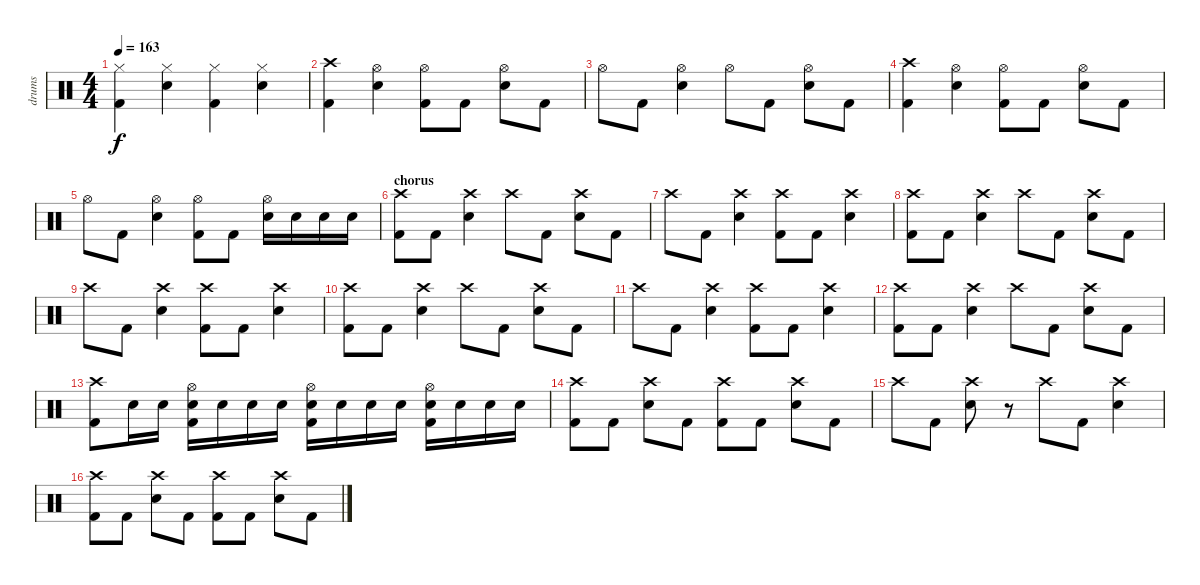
\track ("drums" "drums") {instrument percussion}
\staff {score}
\articulation defaults
\ts (4 4)
\tempo 163
\clef neutral
\ks c
("Hi-Hat (closed)" "Kick (hit) 2").4{dy f} ("Hi-Hat (closed)" "Electric Snare (hit)").4 ("Hi-Hat (closed)" "Kick (hit) 2").4 ("Hi-Hat (closed)" "Electric Snare (hit)").4 |
("Crash high (hit)" "Kick (hit) 2").4 ("Hi-Hat (open)" "Electric Snare (hit)").4 ("Hi-Hat (open)" "Kick (hit) 2").8 "Kick (hit) 2".8 ("Hi-Hat (open)" "Electric Snare (hit)").8 "Kick (hit) 2".8 |
"Hi-Hat (open)".8 "Kick (hit) 2".8 ("Hi-Hat (open)" "Electric Snare (hit)").4 "Hi-Hat (open)".8 "Kick (hit) 2".8 ("Hi-Hat (open)" "Electric Snare (hit)").8 "Kick (hit) 2".8 |
("Crash high (hit)" "Kick (hit) 2").4 ("Hi-Hat (open)" "Electric Snare (hit)").4 ("Hi-Hat (open)" "Kick (hit) 2").8 "Kick (hit) 2".8 ("Hi-Hat (open)" "Electric Snare (hit)").8 "Kick (hit) 2".8 |
"Hi-Hat (open)".8 "Kick (hit) 2".8 ("Hi-Hat (open)" "Electric Snare (hit)").4 ("Hi-Hat (open)" "Kick (hit) 2").8 "Kick (hit) 2".8 ("Hi-Hat (open)" "Electric Snare (hit)").16 "Electric Snare (hit)".16 "Electric Snare (hit)".16 "Electric Snare (hit)".16 |
\section ("" "chorus")
("Crash high (hit)" "Kick (hit) 2").8 "Kick (hit) 2".8 ("Crash high (hit)" "Electric Snare (hit)").4 "Crash high (hit)".8 "Kick (hit) 2".8 ("Crash high (hit)" "Electric Snare (hit)").8 "Kick (hit) 2".8 |
"Crash high (hit)".8 "Kick (hit) 2".8 ("Crash high (hit)" "Electric Snare (hit)").4 ("Crash high (hit)" "Kick (hit) 2").8 "Kick (hit) 2".8 ("Crash high (hit)" "Electric Snare (hit)").4 |
("Crash high (hit)" "Kick (hit) 2").8 "Kick (hit) 2".8 ("Crash high (hit)" "Electric Snare (hit)").4 "Crash high (hit)".8 "Kick (hit) 2".8 ("Crash high (hit)" "Electric Snare (hit)").8 "Kick (hit) 2".8 |
"Crash high (hit)".8 "Kick (hit) 2".8 ("Crash high (hit)" "Electric Snare (hit)").4 ("Crash high (hit)" "Kick (hit) 2").8 "Kick (hit) 2".8 ("Crash high (hit)" "Electric Snare (hit)").4 |
("Crash high (hit)" "Kick (hit) 2").8 "Kick (hit) 2".8 ("Crash high (hit)" "Electric Snare (hit)").4 "Crash high (hit)".8 "Kick (hit) 2".8 ("Crash high (hit)" "Electric Snare (hit)").8 "Kick (hit) 2".8 |
"Crash high (hit)".8 "Kick (hit) 2".8 ("Crash high (hit)" "Electric Snare (hit)").4 ("Crash high (hit)" "Kick (hit) 2").8 "Kick (hit) 2".8 ("Crash high (hit)" "Electric Snare (hit)").4 |
("Crash high (hit)" "Kick (hit) 2").8 "Kick (hit) 2".8 ("Crash high (hit)" "Electric Snare (hit)").4 "Crash high (hit)".8 "Kick (hit) 2".8 ("Crash high (hit)" "Electric Snare (hit)").8 "Kick (hit) 2".8 |
("Crash high (hit)" "Kick (hit) 2").8 "Electric Snare (hit)".16 "Electric Snare (hit)".16 ("Hi-Hat (open)" "Electric Snare (hit)" "Kick (hit) 2").16 "Electric Snare (hit)".16 "Electric Snare (hit)".16 "Electric Snare (hit)".16 ("Hi-Hat (open)" "Electric Snare (hit)" "Kick (hit) 2").16 "Electric Snare (hit)".16 "Electric Snare (hit)".16 "Electric Snare (hit)".16 ("Hi-Hat (open)" "Electric Snare (hit)" "Kick (hit) 2").16 "Electric Snare (hit)".16 "Electric Snare (hit)".16 "Electric Snare (hit)".16 |
("Crash high (hit)" "Kick (hit) 2").8 "Kick (hit) 2".8 ("Crash high (hit)" "Electric Snare (hit)").8 "Kick (hit) 2".8 ("Crash high (hit)" "Kick (hit) 2").8 "Kick (hit) 2".8 ("Crash high (hit)" "Electric Snare (hit)").8 "Kick (hit) 2".8 |
"Crash high (hit)".8 "Kick (hit) 2".8 ("Crash high (hit)" "Electric Snare (hit)").8 r.8 "Crash high (hit)".8 "Kick (hit) 2".8 ("Crash high (hit)" "Electric Snare (hit)").4 |
("Crash high (hit)" "Kick (hit) 2").8 "Kick (hit) 2".8 ("Crash high (hit)" "Electric Snare (hit)").8 "Kick (hit) 2".8 ("Crash high (hit)" "Kick (hit) 2").8 "Kick (hit) 2".8 ("Crash high (hit)" "Electric Snare (hit)").8 "Kick (hit) 2".8
